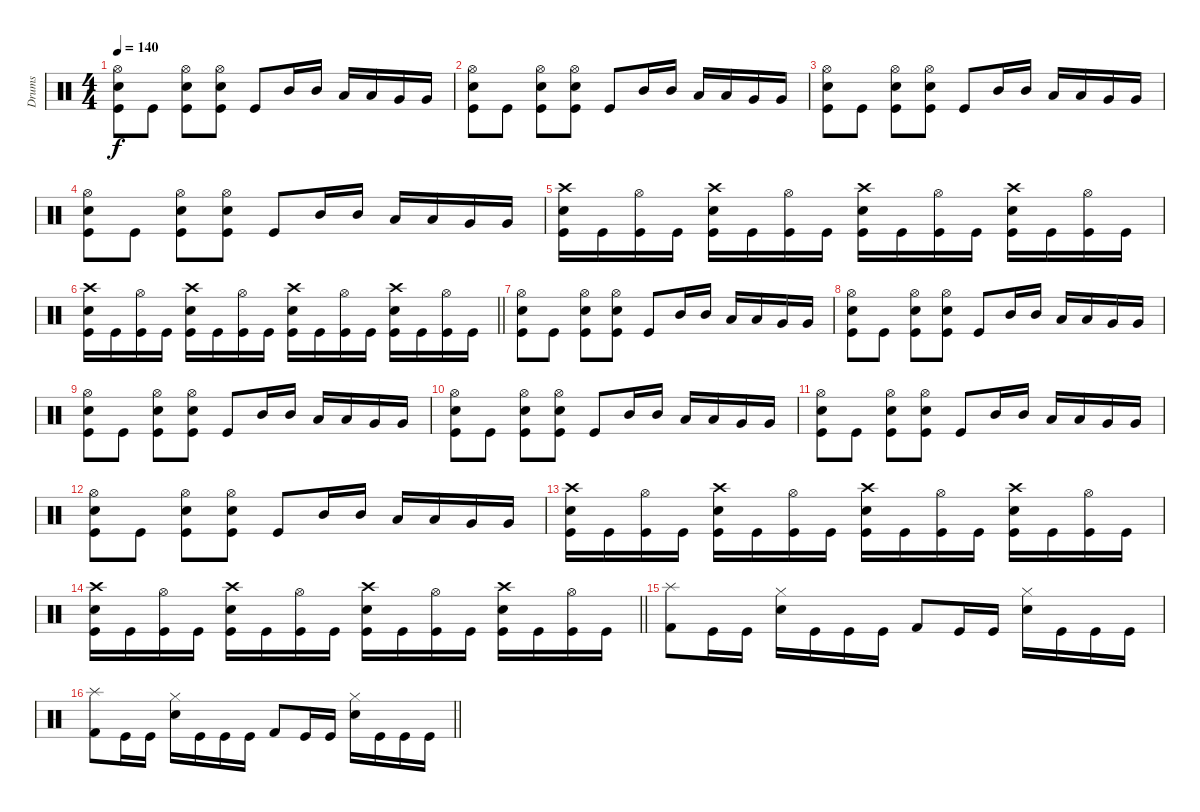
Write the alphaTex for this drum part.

\track ("Drums" "Drums") {instrument percussion}
\staff {score}
\articulation defaults
\ts (4 4)
\tempo 140
\clef neutral
\ks c
("Hi-Hat (open)" "Snare (hit) 2" "Kick (hit)").8{dy f} "Kick (hit)".8 ("Hi-Hat (open)" "Snare (hit) 2" "Kick (hit)").8 ("Hi-Hat (open)" "Snare (hit) 2" "Kick (hit)").8 "Kick (hit)".8 "Mid Tom (hit)".16 "Mid Tom (hit)".16 "Low Tom (hit)".16 "Low Tom (hit)".16 "Very Low Tom (hit)".16 "Very Low Tom (hit)".16 |
("Hi-Hat (open)" "Snare (hit) 2" "Kick (hit)").8 "Kick (hit)".8 ("Hi-Hat (open)" "Snare (hit) 2" "Kick (hit)").8 ("Hi-Hat (open)" "Snare (hit) 2" "Kick (hit)").8 "Kick (hit)".8 "Mid Tom (hit)".16 "Mid Tom (hit)".16 "Low Tom (hit)".16 "Low Tom (hit)".16 "Very Low Tom (hit)".16 "Very Low Tom (hit)".16 |
("Hi-Hat (open)" "Snare (hit) 2" "Kick (hit)").8 "Kick (hit)".8 ("Hi-Hat (open)" "Snare (hit) 2" "Kick (hit)").8 ("Hi-Hat (open)" "Snare (hit) 2" "Kick (hit)").8 "Kick (hit)".8 "Mid Tom (hit)".16 "Mid Tom (hit)".16 "Low Tom (hit)".16 "Low Tom (hit)".16 "Very Low Tom (hit)".16 "Very Low Tom (hit)".16 |
("Hi-Hat (open)" "Snare (hit) 2" "Kick (hit)").8 "Kick (hit)".8 ("Hi-Hat (open)" "Snare (hit) 2" "Kick (hit)").8 ("Hi-Hat (open)" "Snare (hit) 2" "Kick (hit)").8 "Kick (hit)".8 "Mid Tom (hit)".16 "Mid Tom (hit)".16 "Low Tom (hit)".16 "Low Tom (hit)".16 "Very Low Tom (hit)".16 "Very Low Tom (hit)".16 |
("Crash high (hit)" "Snare (hit) 2" "Kick (hit)").16 "Kick (hit)".16 ("Hi-Hat (open)" "Kick (hit)").16 "Kick (hit)".16 ("Crash high (hit)" "Snare (hit) 2" "Kick (hit)").16 "Kick (hit)".16 ("Hi-Hat (open)" "Kick (hit)").16 "Kick (hit)".16 ("Crash high (hit)" "Snare (hit) 2" "Kick (hit)").16 "Kick (hit)".16 ("Hi-Hat (open)" "Kick (hit)").16 "Kick (hit)".16 ("Crash high (hit)" "Snare (hit) 2" "Kick (hit)").16 "Kick (hit)".16 ("Hi-Hat (open)" "Kick (hit)").16 "Kick (hit)".16 |
\barLineRight lightlight
("Crash high (hit)" "Snare (hit) 2" "Kick (hit)").16 "Kick (hit)".16 ("Hi-Hat (open)" "Kick (hit)").16 "Kick (hit)".16 ("Crash high (hit)" "Snare (hit) 2" "Kick (hit)").16 "Kick (hit)".16 ("Hi-Hat (open)" "Kick (hit)").16 "Kick (hit)".16 ("Crash high (hit)" "Snare (hit) 2" "Kick (hit)").16 "Kick (hit)".16 ("Hi-Hat (open)" "Kick (hit)").16 "Kick (hit)".16 ("Crash high (hit)" "Snare (hit) 2" "Kick (hit)").16 "Kick (hit)".16 ("Hi-Hat (open)" "Kick (hit)").16 "Kick (hit)".16 |
("Hi-Hat (open)" "Snare (hit) 2" "Kick (hit)").8 "Kick (hit)".8 ("Hi-Hat (open)" "Snare (hit) 2" "Kick (hit)").8 ("Hi-Hat (open)" "Snare (hit) 2" "Kick (hit)").8 "Kick (hit)".8 "Mid Tom (hit)".16 "Mid Tom (hit)".16 "Low Tom (hit)".16 "Low Tom (hit)".16 "Very Low Tom (hit)".16 "Very Low Tom (hit)".16 |
("Hi-Hat (open)" "Snare (hit) 2" "Kick (hit)").8 "Kick (hit)".8 ("Hi-Hat (open)" "Snare (hit) 2" "Kick (hit)").8 ("Hi-Hat (open)" "Snare (hit) 2" "Kick (hit)").8 "Kick (hit)".8 "Mid Tom (hit)".16 "Mid Tom (hit)".16 "Low Tom (hit)".16 "Low Tom (hit)".16 "Very Low Tom (hit)".16 "Very Low Tom (hit)".16 |
("Hi-Hat (open)" "Snare (hit) 2" "Kick (hit)").8 "Kick (hit)".8 ("Hi-Hat (open)" "Snare (hit) 2" "Kick (hit)").8 ("Hi-Hat (open)" "Snare (hit) 2" "Kick (hit)").8 "Kick (hit)".8 "Mid Tom (hit)".16 "Mid Tom (hit)".16 "Low Tom (hit)".16 "Low Tom (hit)".16 "Very Low Tom (hit)".16 "Very Low Tom (hit)".16 |
("Hi-Hat (open)" "Snare (hit) 2" "Kick (hit)").8 "Kick (hit)".8 ("Hi-Hat (open)" "Snare (hit) 2" "Kick (hit)").8 ("Hi-Hat (open)" "Snare (hit) 2" "Kick (hit)").8 "Kick (hit)".8 "Mid Tom (hit)".16 "Mid Tom (hit)".16 "Low Tom (hit)".16 "Low Tom (hit)".16 "Very Low Tom (hit)".16 "Very Low Tom (hit)".16 |
("Hi-Hat (open)" "Snare (hit) 2" "Kick (hit)").8 "Kick (hit)".8 ("Hi-Hat (open)" "Snare (hit) 2" "Kick (hit)").8 ("Hi-Hat (open)" "Snare (hit) 2" "Kick (hit)").8 "Kick (hit)".8 "Mid Tom (hit)".16 "Mid Tom (hit)".16 "Low Tom (hit)".16 "Low Tom (hit)".16 "Very Low Tom (hit)".16 "Very Low Tom (hit)".16 |
("Hi-Hat (open)" "Snare (hit) 2" "Kick (hit)").8 "Kick (hit)".8 ("Hi-Hat (open)" "Snare (hit) 2" "Kick (hit)").8 ("Hi-Hat (open)" "Snare (hit) 2" "Kick (hit)").8 "Kick (hit)".8 "Mid Tom (hit)".16 "Mid Tom (hit)".16 "Low Tom (hit)".16 "Low Tom (hit)".16 "Very Low Tom (hit)".16 "Very Low Tom (hit)".16 |
("Crash high (hit)" "Snare (hit) 2" "Kick (hit)").16 "Kick (hit)".16 ("Hi-Hat (open)" "Kick (hit)").16 "Kick (hit)".16 ("Crash high (hit)" "Snare (hit) 2" "Kick (hit)").16 "Kick (hit)".16 ("Hi-Hat (open)" "Kick (hit)").16 "Kick (hit)".16 ("Crash high (hit)" "Snare (hit) 2" "Kick (hit)").16 "Kick (hit)".16 ("Hi-Hat (open)" "Kick (hit)").16 "Kick (hit)".16 ("Crash high (hit)" "Snare (hit) 2" "Kick (hit)").16 "Kick (hit)".16 ("Hi-Hat (open)" "Kick (hit)").16 "Kick (hit)".16 |
\barLineRight lightlight
("Crash high (hit)" "Snare (hit) 2" "Kick (hit)").16 "Kick (hit)".16 ("Hi-Hat (open)" "Kick (hit)").16 "Kick (hit)".16 ("Crash high (hit)" "Snare (hit) 2" "Kick (hit)").16 "Kick (hit)".16 ("Hi-Hat (open)" "Kick (hit)").16 "Kick (hit)".16 ("Crash high (hit)" "Snare (hit) 2" "Kick (hit)").16 "Kick (hit)".16 ("Hi-Hat (open)" "Kick (hit)").16 "Kick (hit)".16 ("Crash high (hit)" "Snare (hit) 2" "Kick (hit)").16 "Kick (hit)".16 ("Hi-Hat (open)" "Kick (hit)").16 "Kick (hit)".16 |
("Splash (hit)" "Kick (hit) 2").8 "Kick (hit)".16 "Kick (hit)".16 ("Snare (hit) 2" "Hi-Hat (closed)").16 "Kick (hit)".16 "Kick (hit)".16 "Kick (hit)".16 "Kick (hit) 2".8 "Kick (hit)".16 "Kick (hit)".16 ("Snare (hit) 2" "Hi-Hat (closed)").16 "Kick (hit)".16 "Kick (hit)".16 "Kick (hit)".16 |
\barLineRight lightlight
("Splash (hit)" "Kick (hit) 2").8 "Kick (hit)".16 "Kick (hit)".16 ("Snare (hit) 2" "Hi-Hat (closed)").16 "Kick (hit)".16 "Kick (hit)".16 "Kick (hit)".16 "Kick (hit) 2".8 "Kick (hit)".16 "Kick (hit)".16 ("Snare (hit) 2" "Hi-Hat (closed)").16 "Kick (hit)".16 "Kick (hit)".16 "Kick (hit)".16
